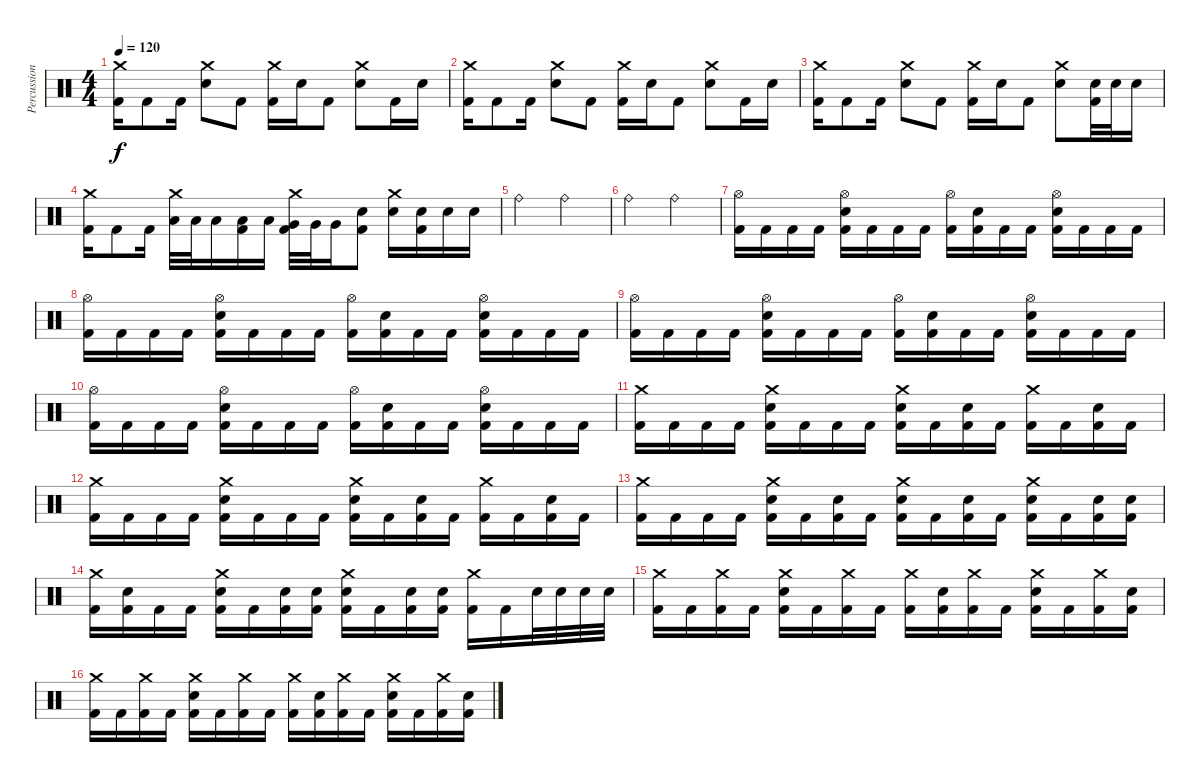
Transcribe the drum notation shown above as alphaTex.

\track ("Percussions" "Percussion") {instrument percussion}
\staff {score}
\articulation defaults
\ts (4 4)
\tempo 120
\clef neutral
\ks c
("Crash medium (hit)" "Kick (hit) 2").16{dy f} "Kick (hit) 2".8 "Kick (hit) 2".16 ("Electric Snare (hit)" "Crash medium (hit)").8 "Kick (hit) 2".8 ("Crash medium (hit)" "Kick (hit) 2").16 "Electric Snare (hit)".16 "Kick (hit) 2".8 ("Electric Snare (hit)" "Crash medium (hit)").8 "Kick (hit) 2".16 "Electric Snare (hit)".16 |
("Crash medium (hit)" "Kick (hit) 2").16 "Kick (hit) 2".8 "Kick (hit) 2".16 ("Electric Snare (hit)" "Crash medium (hit)").8 "Kick (hit) 2".8 ("Crash medium (hit)" "Kick (hit) 2").16 "Electric Snare (hit)".16 "Kick (hit) 2".8 ("Electric Snare (hit)" "Crash medium (hit)").8 "Kick (hit) 2".16 "Electric Snare (hit)".16 |
("Crash medium (hit)" "Kick (hit) 2").16 "Kick (hit) 2".8 "Kick (hit) 2".16 ("Electric Snare (hit)" "Crash medium (hit)").8 "Kick (hit) 2".8 ("Crash medium (hit)" "Kick (hit) 2").16 "Electric Snare (hit)".16 "Kick (hit) 2".8 ("Electric Snare (hit)" "Crash medium (hit)").8 ("Electric Snare (hit)" "Kick (hit) 2").32 "Electric Snare (hit)".32 "Electric Snare (hit)".16 |
("Crash medium (hit)" "Kick (hit) 2").16 "Kick (hit) 2".8 "Kick (hit) 2".16 ("Low Tom (hit)" "Crash medium (hit)").32 "Low Tom (hit)".32 "Low Tom (hit)".16 ("Low Tom (hit)" "Kick (hit) 2").16 "Low Tom (hit)".16 ("Very Low Tom (hit)" "Crash medium (hit)" "Kick (hit) 2").32 "Very Low Tom (hit)".32 "Very Low Tom (hit)".16 ("Electric Snare (hit)" "Kick (hit) 2").8 ("Electric Snare (hit)" "Crash medium (hit)").16 ("Electric Snare (hit)" "Kick (hit) 2").16 "Electric Snare (hit)".16 "Electric Snare (hit)".16 |
"Ride (bell)".2 "Ride (bell)".2 |
"Ride (bell)".2 "Ride (bell)".2 |
("Hi-Hat (open)" "Kick (hit) 2").16 "Kick (hit) 2".16 "Kick (hit) 2".16 "Kick (hit) 2".16 ("Electric Snare (hit)" "Hi-Hat (open)" "Kick (hit) 2").16 "Kick (hit) 2".16 "Kick (hit) 2".16 "Kick (hit) 2".16 ("Hi-Hat (open)" "Kick (hit) 2").16 ("Electric Snare (hit)" "Kick (hit) 2").16 "Kick (hit) 2".16 "Kick (hit) 2".16 ("Electric Snare (hit)" "Hi-Hat (open)" "Kick (hit) 2").16 "Kick (hit) 2".16 "Kick (hit) 2".16 "Kick (hit) 2".16 |
("Hi-Hat (open)" "Kick (hit) 2").16 "Kick (hit) 2".16 "Kick (hit) 2".16 "Kick (hit) 2".16 ("Electric Snare (hit)" "Hi-Hat (open)" "Kick (hit) 2").16 "Kick (hit) 2".16 "Kick (hit) 2".16 "Kick (hit) 2".16 ("Hi-Hat (open)" "Kick (hit) 2").16 ("Electric Snare (hit)" "Kick (hit) 2").16 "Kick (hit) 2".16 "Kick (hit) 2".16 ("Electric Snare (hit)" "Hi-Hat (open)" "Kick (hit) 2").16 "Kick (hit) 2".16 "Kick (hit) 2".16 "Kick (hit) 2".16 |
("Hi-Hat (open)" "Kick (hit) 2").16 "Kick (hit) 2".16 "Kick (hit) 2".16 "Kick (hit) 2".16 ("Electric Snare (hit)" "Hi-Hat (open)" "Kick (hit) 2").16 "Kick (hit) 2".16 "Kick (hit) 2".16 "Kick (hit) 2".16 ("Hi-Hat (open)" "Kick (hit) 2").16 ("Electric Snare (hit)" "Kick (hit) 2").16 "Kick (hit) 2".16 "Kick (hit) 2".16 ("Electric Snare (hit)" "Hi-Hat (open)" "Kick (hit) 2").16 "Kick (hit) 2".16 "Kick (hit) 2".16 "Kick (hit) 2".16 |
("Hi-Hat (open)" "Kick (hit) 2").16 "Kick (hit) 2".16 "Kick (hit) 2".16 "Kick (hit) 2".16 ("Electric Snare (hit)" "Hi-Hat (open)" "Kick (hit) 2").16 "Kick (hit) 2".16 "Kick (hit) 2".16 "Kick (hit) 2".16 ("Hi-Hat (open)" "Kick (hit) 2").16 ("Electric Snare (hit)" "Kick (hit) 2").16 "Kick (hit) 2".16 "Kick (hit) 2".16 ("Electric Snare (hit)" "Hi-Hat (open)" "Kick (hit) 2").16 "Kick (hit) 2".16 "Kick (hit) 2".16 "Kick (hit) 2".16 |
("Crash medium (hit)" "Kick (hit) 2").16 "Kick (hit) 2".16 "Kick (hit) 2".16 "Kick (hit) 2".16 ("Electric Snare (hit)" "Crash medium (hit)" "Kick (hit) 2").16 "Kick (hit) 2".16 "Kick (hit) 2".16 "Kick (hit) 2".16 ("Electric Snare (hit)" "Crash medium (hit)" "Kick (hit) 2").16 "Kick (hit) 2".16 ("Electric Snare (hit)" "Kick (hit) 2").16 "Kick (hit) 2".16 ("Crash medium (hit)" "Kick (hit) 2").16 "Kick (hit) 2".16 ("Electric Snare (hit)" "Kick (hit) 2").16 "Kick (hit) 2".16 |
("Crash medium (hit)" "Kick (hit) 2").16 "Kick (hit) 2".16 "Kick (hit) 2".16 "Kick (hit) 2".16 ("Electric Snare (hit)" "Crash medium (hit)" "Kick (hit) 2").16 "Kick (hit) 2".16 "Kick (hit) 2".16 "Kick (hit) 2".16 ("Electric Snare (hit)" "Crash medium (hit)" "Kick (hit) 2").16 "Kick (hit) 2".16 ("Electric Snare (hit)" "Kick (hit) 2").16 "Kick (hit) 2".16 ("Crash medium (hit)" "Kick (hit) 2").16 "Kick (hit) 2".16 ("Electric Snare (hit)" "Kick (hit) 2").16 "Kick (hit) 2".16 |
("Crash medium (hit)" "Kick (hit) 2").16 "Kick (hit) 2".16 "Kick (hit) 2".16 "Kick (hit) 2".16 ("Electric Snare (hit)" "Crash medium (hit)" "Kick (hit) 2").16 "Kick (hit) 2".16 ("Electric Snare (hit)" "Kick (hit) 2").16 "Kick (hit) 2".16 ("Electric Snare (hit)" "Crash medium (hit)" "Kick (hit) 2").16 "Kick (hit) 2".16 ("Electric Snare (hit)" "Kick (hit) 2").16 "Kick (hit) 2".16 ("Electric Snare (hit)" "Crash medium (hit)" "Kick (hit) 2").16 "Kick (hit) 2".16 ("Electric Snare (hit)" "Kick (hit) 2").16 ("Electric Snare (hit)" "Kick (hit) 2").16 |
("Crash medium (hit)" "Kick (hit) 2").16 ("Electric Snare (hit)" "Kick (hit) 2").16 "Kick (hit) 2".16 "Kick (hit) 2".16 ("Electric Snare (hit)" "Crash medium (hit)" "Kick (hit) 2").16 "Kick (hit) 2".16 ("Electric Snare (hit)" "Kick (hit) 2").16 ("Electric Snare (hit)" "Kick (hit) 2").16 ("Electric Snare (hit)" "Crash medium (hit)" "Kick (hit) 2").16 "Kick (hit) 2".16 ("Electric Snare (hit)" "Kick (hit) 2").16 ("Electric Snare (hit)" "Kick (hit) 2").16 ("Crash medium (hit)" "Kick (hit) 2").16 "Kick (hit) 2".16 "Electric Snare (hit)".32 "Electric Snare (hit)".32 "Electric Snare (hit)".32 "Electric Snare (hit)".32 |
("Crash medium (hit)" "Kick (hit) 2").16 "Kick (hit) 2".16 ("Crash medium (hit)" "Kick (hit) 2").16 "Kick (hit) 2".16 ("Electric Snare (hit)" "Crash medium (hit)" "Kick (hit) 2").16 "Kick (hit) 2".16 ("Crash medium (hit)" "Kick (hit) 2").16 "Kick (hit) 2".16 ("Crash medium (hit)" "Kick (hit) 2").16 ("Electric Snare (hit)" "Kick (hit) 2").16 ("Crash medium (hit)" "Kick (hit) 2").16 "Kick (hit) 2".16 ("Electric Snare (hit)" "Crash medium (hit)" "Kick (hit) 2").16 "Kick (hit) 2".16 ("Crash medium (hit)" "Kick (hit) 2").16 ("Electric Snare (hit)" "Kick (hit) 2").16 |
("Crash medium (hit)" "Kick (hit) 2").16 "Kick (hit) 2".16 ("Crash medium (hit)" "Kick (hit) 2").16 "Kick (hit) 2".16 ("Electric Snare (hit)" "Crash medium (hit)" "Kick (hit) 2").16 "Kick (hit) 2".16 ("Crash medium (hit)" "Kick (hit) 2").16 "Kick (hit) 2".16 ("Crash medium (hit)" "Kick (hit) 2").16 ("Electric Snare (hit)" "Kick (hit) 2").16 ("Crash medium (hit)" "Kick (hit) 2").16 "Kick (hit) 2".16 ("Electric Snare (hit)" "Crash medium (hit)" "Kick (hit) 2").16 "Kick (hit) 2".16 ("Crash medium (hit)" "Kick (hit) 2").16 ("Electric Snare (hit)" "Kick (hit) 2").16
